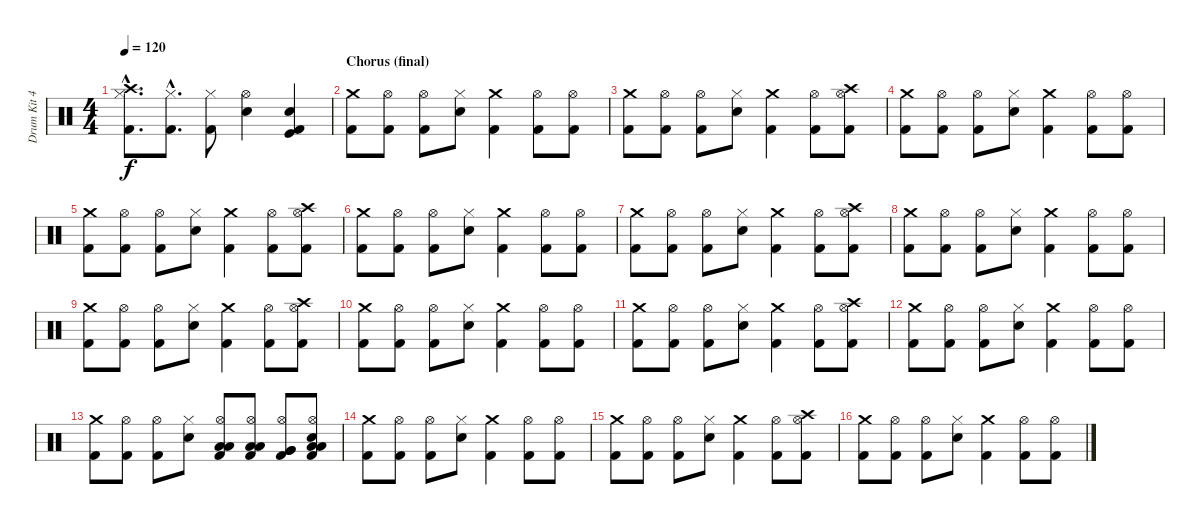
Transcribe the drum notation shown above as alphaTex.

\track ("Drum Kit 42" "Drum Kit 4") {instrument percussion}
\staff {score}
\articulation defaults
\ts (4 4)
\tempo 120
\clef neutral
\ks c
("Crash high (hit)"{hac} "Hi-Hat (closed)"{hac} "Kick (hit) 2"{hac}).8{d dy f} ("Hi-Hat (closed)"{hac} "Kick (hit) 2"{hac}).8{d} ("Hi-Hat (closed)" "Kick (hit) 2").8 ("Hi-Hat (open)" "Snare (hit) 2").4 ("Snare (hit) 2" "Kick (hit)" "Kick (hit) 2").4{volume 14} |
\section ("" "Chorus (final)")
("Crash medium (hit)" "Kick (hit) 2").8 ("Hi-Hat (open)" "Kick (hit) 2").8 ("Hi-Hat (open)" "Kick (hit) 2").8 ("Hi-Hat (closed)" "Snare (hit) 2").8 ("Crash medium (hit)" "Kick (hit) 2").4 ("Hi-Hat (open)" "Kick (hit) 2").8 ("Hi-Hat (open)" "Kick (hit) 2").8 |
("Crash medium (hit)" "Kick (hit) 2").8 ("Hi-Hat (open)" "Kick (hit) 2").8 ("Hi-Hat (open)" "Kick (hit) 2").8 ("Hi-Hat (closed)" "Snare (hit) 2").8 ("Crash medium (hit)" "Kick (hit) 2").4 ("Hi-Hat (open)" "Kick (hit) 2").8 ("Crash high (hit)" "Hi-Hat (open)" "Kick (hit) 2").8 |
("Crash medium (hit)" "Kick (hit) 2").8 ("Hi-Hat (open)" "Kick (hit) 2").8 ("Hi-Hat (open)" "Kick (hit) 2").8 ("Hi-Hat (closed)" "Snare (hit) 2").8 ("Crash medium (hit)" "Kick (hit) 2").4 ("Hi-Hat (open)" "Kick (hit) 2").8 ("Hi-Hat (open)" "Kick (hit) 2").8 |
("Crash medium (hit)" "Kick (hit) 2").8 ("Hi-Hat (open)" "Kick (hit) 2").8 ("Hi-Hat (open)" "Kick (hit) 2").8 ("Hi-Hat (closed)" "Snare (hit) 2").8 ("Crash medium (hit)" "Kick (hit) 2").4 ("Hi-Hat (open)" "Kick (hit) 2").8 ("Crash high (hit)" "Hi-Hat (open)" "Kick (hit) 2").8 |
("Crash medium (hit)" "Kick (hit) 2").8 ("Hi-Hat (open)" "Kick (hit) 2").8 ("Hi-Hat (open)" "Kick (hit) 2").8 ("Hi-Hat (closed)" "Snare (hit) 2").8 ("Crash medium (hit)" "Kick (hit) 2").4 ("Hi-Hat (open)" "Kick (hit) 2").8 ("Hi-Hat (open)" "Kick (hit) 2").8 |
("Crash medium (hit)" "Kick (hit) 2").8 ("Hi-Hat (open)" "Kick (hit) 2").8 ("Hi-Hat (open)" "Kick (hit) 2").8 ("Hi-Hat (closed)" "Snare (hit) 2").8 ("Crash medium (hit)" "Kick (hit) 2").4 ("Hi-Hat (open)" "Kick (hit) 2").8 ("Crash high (hit)" "Hi-Hat (open)" "Kick (hit) 2").8 |
("Crash medium (hit)" "Kick (hit) 2").8 ("Hi-Hat (open)" "Kick (hit) 2").8 ("Hi-Hat (open)" "Kick (hit) 2").8 ("Hi-Hat (closed)" "Snare (hit) 2").8 ("Crash medium (hit)" "Kick (hit) 2").4 ("Hi-Hat (open)" "Kick (hit) 2").8 ("Hi-Hat (open)" "Kick (hit) 2").8 |
("Crash medium (hit)" "Kick (hit) 2").8 ("Hi-Hat (open)" "Kick (hit) 2").8 ("Hi-Hat (open)" "Kick (hit) 2").8 ("Hi-Hat (closed)" "Snare (hit) 2").8 ("Crash medium (hit)" "Kick (hit) 2").4 ("Hi-Hat (open)" "Kick (hit) 2").8 ("Crash high (hit)" "Hi-Hat (open)" "Kick (hit) 2").8 |
("Crash medium (hit)" "Kick (hit) 2").8 ("Hi-Hat (open)" "Kick (hit) 2").8 ("Hi-Hat (open)" "Kick (hit) 2").8 ("Hi-Hat (closed)" "Snare (hit) 2").8 ("Crash medium (hit)" "Kick (hit) 2").4 ("Hi-Hat (open)" "Kick (hit) 2").8 ("Hi-Hat (open)" "Kick (hit) 2").8 |
("Crash medium (hit)" "Kick (hit) 2").8 ("Hi-Hat (open)" "Kick (hit) 2").8 ("Hi-Hat (open)" "Kick (hit) 2").8 ("Hi-Hat (closed)" "Snare (hit) 2").8 ("Crash medium (hit)" "Kick (hit) 2").4 ("Hi-Hat (open)" "Kick (hit) 2").8 ("Crash high (hit)" "Hi-Hat (open)" "Kick (hit) 2").8 |
("Crash medium (hit)" "Kick (hit) 2").8 ("Hi-Hat (open)" "Kick (hit) 2").8 ("Hi-Hat (open)" "Kick (hit) 2").8 ("Hi-Hat (closed)" "Snare (hit) 2").8 ("Crash medium (hit)" "Kick (hit) 2").4 ("Hi-Hat (open)" "Kick (hit) 2").8 ("Hi-Hat (open)" "Kick (hit) 2").8 |
("Crash medium (hit)" "Kick (hit) 2").8 ("Hi-Hat (open)" "Kick (hit) 2").8 ("Hi-Hat (open)" "Kick (hit) 2").8 ("Hi-Hat (closed)" "Snare (hit) 2").8 ("Hi-Hat (open)" "Low Tom (hit)" "Low Tom (hit)" "Kick (hit) 2").8 ("Hi-Hat (open)" "Low Tom (hit)" "Low Tom (hit)" "Kick (hit) 2").8 ("Hi-Hat (open)" "Very Low Tom (hit)" "Very Low Tom (hit)" "Kick (hit) 2").8 ("Hi-Hat (open)" "Snare (hit) 2" "Low Floor Tom (hit)" "Low Floor Tom (hit)" "Kick (hit) 2").8 |
("Crash medium (hit)" "Kick (hit) 2").8 ("Hi-Hat (open)" "Kick (hit) 2").8 ("Hi-Hat (open)" "Kick (hit) 2").8 ("Hi-Hat (closed)" "Snare (hit) 2").8 ("Crash medium (hit)" "Kick (hit) 2").4 ("Hi-Hat (open)" "Kick (hit) 2").8 ("Hi-Hat (open)" "Kick (hit) 2").8 |
("Crash medium (hit)" "Kick (hit) 2").8 ("Hi-Hat (open)" "Kick (hit) 2").8 ("Hi-Hat (open)" "Kick (hit) 2").8 ("Hi-Hat (closed)" "Snare (hit) 2").8 ("Crash medium (hit)" "Kick (hit) 2").4 ("Hi-Hat (open)" "Kick (hit) 2").8 ("Crash high (hit)" "Hi-Hat (open)" "Kick (hit) 2").8 |
("Crash medium (hit)" "Kick (hit) 2").8 ("Hi-Hat (open)" "Kick (hit) 2").8 ("Hi-Hat (open)" "Kick (hit) 2").8 ("Hi-Hat (closed)" "Snare (hit) 2").8 ("Crash medium (hit)" "Kick (hit) 2").4 ("Hi-Hat (open)" "Kick (hit) 2").8 ("Hi-Hat (open)" "Kick (hit) 2").8
